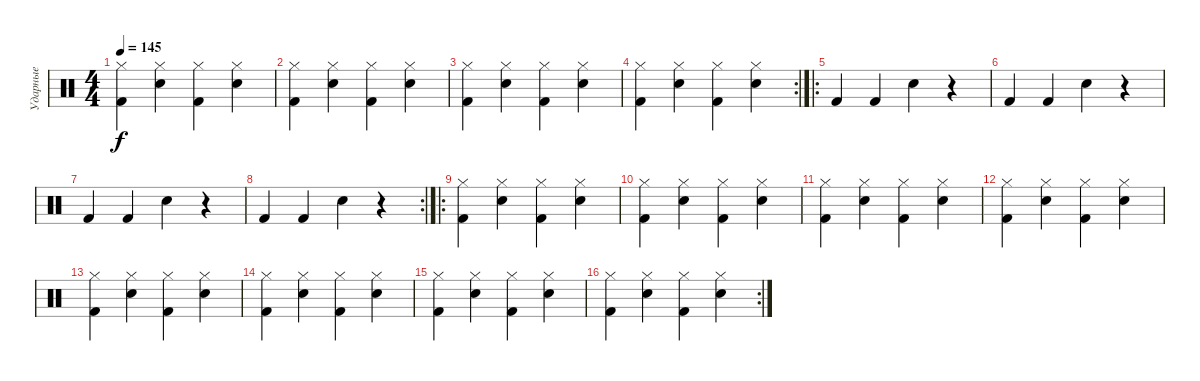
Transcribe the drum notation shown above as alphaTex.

\track ("Ударные" "Ударные") {solo instrument percussion}
\staff {score}
\articulation defaults
\ts (4 4)
\tempo 145
\clef neutral
\ks c
("Hi-Hat (closed)" "Kick (hit) 2").4{dy f} ("Hi-Hat (closed)" "Snare (hit) 2").4 ("Hi-Hat (closed)" "Kick (hit) 2").4 ("Hi-Hat (closed)" "Snare (hit) 2").4 |
("Hi-Hat (closed)" "Kick (hit) 2").4 ("Hi-Hat (closed)" "Snare (hit) 2").4 ("Hi-Hat (closed)" "Kick (hit) 2").4 ("Hi-Hat (closed)" "Snare (hit) 2").4 |
("Hi-Hat (closed)" "Kick (hit) 2").4 ("Hi-Hat (closed)" "Snare (hit) 2").4 ("Hi-Hat (closed)" "Kick (hit) 2").4 ("Hi-Hat (closed)" "Snare (hit) 2").4 |
\rc 2
("Hi-Hat (closed)" "Kick (hit) 2").4 ("Hi-Hat (closed)" "Snare (hit) 2").4 ("Hi-Hat (closed)" "Kick (hit) 2").4 ("Hi-Hat (closed)" "Snare (hit) 2").4 |
\ro "Kick (hit) 2".4 "Kick (hit) 2".4 "Snare (hit) 2".4
r.4 |
"Kick (hit) 2".4 "Kick (hit) 2".4 "Snare (hit) 2".4 r.4 |
"Kick (hit) 2".4 "Kick (hit) 2".4 "Snare (hit) 2".4 r.4 |
\rc 2 "Kick (hit) 2".4 "Kick (hit) 2".4 "Snare (hit) 2".4
r.4 |
\ro
("Hi-Hat (closed)" "Kick (hit) 2").4 ("Hi-Hat (closed)" "Snare (hit) 2").4 ("Hi-Hat (closed)" "Kick (hit) 2").4 ("Hi-Hat (closed)" "Snare (hit) 2").4 |
("Hi-Hat (closed)" "Kick (hit) 2").4 ("Hi-Hat (closed)" "Snare (hit) 2").4 ("Hi-Hat (closed)" "Kick (hit) 2").4 ("Hi-Hat (closed)" "Snare (hit) 2").4 |
("Hi-Hat (closed)" "Kick (hit) 2").4 ("Hi-Hat (closed)" "Snare (hit) 2").4 ("Hi-Hat (closed)" "Kick (hit) 2").4 ("Hi-Hat (closed)" "Snare (hit) 2").4 |
("Hi-Hat (closed)" "Kick (hit) 2").4 ("Hi-Hat (closed)" "Snare (hit) 2").4 ("Hi-Hat (closed)" "Kick (hit) 2").4 ("Hi-Hat (closed)" "Snare (hit) 2").4 |
("Hi-Hat (closed)" "Kick (hit) 2").4 ("Hi-Hat (closed)" "Snare (hit) 2").4 ("Hi-Hat (closed)" "Kick (hit) 2").4 ("Hi-Hat (closed)" "Snare (hit) 2").4 |
("Hi-Hat (closed)" "Kick (hit) 2").4 ("Hi-Hat (closed)" "Snare (hit) 2").4 ("Hi-Hat (closed)" "Kick (hit) 2").4 ("Hi-Hat (closed)" "Snare (hit) 2").4 |
("Hi-Hat (closed)" "Kick (hit) 2").4 ("Hi-Hat (closed)" "Snare (hit) 2").4 ("Hi-Hat (closed)" "Kick (hit) 2").4 ("Hi-Hat (closed)" "Snare (hit) 2").4 |
\rc 2
("Hi-Hat (closed)" "Kick (hit) 2").4 ("Hi-Hat (closed)" "Snare (hit) 2").4 ("Hi-Hat (closed)" "Kick (hit) 2").4 ("Hi-Hat (closed)" "Snare (hit) 2").4
